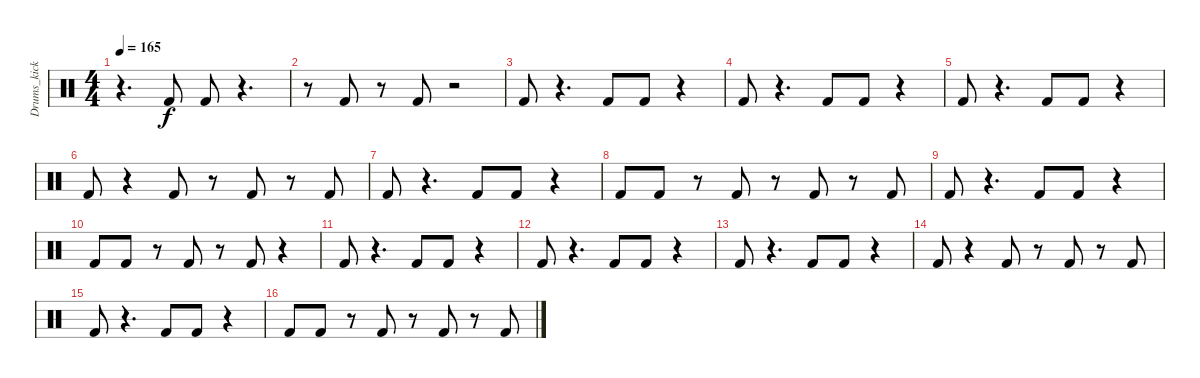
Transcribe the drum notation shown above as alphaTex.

\track ("Drums_kick" "Drums_kick") {instrument percussion}
\staff {score}
\articulation defaults
\ts (4 4)
\tempo 165
\clef neutral
\ks c
r.4{d dy f} "Kick (hit) 2".8 "Kick (hit) 2".8 r.4{d} |
r.8 "Kick (hit) 2".8 r.8 "Kick (hit) 2".8 r.2 |
"Kick (hit) 2".8 r.4{d} "Kick (hit) 2".8 "Kick (hit) 2".8 r.4 |
"Kick (hit) 2".8 r.4{d} "Kick (hit) 2".8 "Kick (hit) 2".8 r.4 |
"Kick (hit) 2".8 r.4{d} "Kick (hit) 2".8 "Kick (hit) 2".8 r.4 |
"Kick (hit) 2".8 r.4 "Kick (hit) 2".8 r.8 "Kick (hit) 2".8 r.8 "Kick (hit) 2".8 |
"Kick (hit) 2".8 r.4{d} "Kick (hit) 2".8 "Kick (hit) 2".8 r.4 |
"Kick (hit) 2".8 "Kick (hit) 2".8 r.8 "Kick (hit) 2".8 r.8 "Kick (hit) 2".8 r.8 "Kick (hit) 2".8 |
"Kick (hit) 2".8 r.4{d} "Kick (hit) 2".8 "Kick (hit) 2".8 r.4 |
"Kick (hit) 2".8 "Kick (hit) 2".8 r.8 "Kick (hit) 2".8 r.8 "Kick (hit) 2".8 r.4 |
"Kick (hit) 2".8 r.4{d} "Kick (hit) 2".8 "Kick (hit) 2".8 r.4 |
"Kick (hit) 2".8 r.4{d} "Kick (hit) 2".8 "Kick (hit) 2".8 r.4 |
"Kick (hit) 2".8 r.4{d} "Kick (hit) 2".8 "Kick (hit) 2".8 r.4 |
"Kick (hit) 2".8 r.4 "Kick (hit) 2".8 r.8 "Kick (hit) 2".8 r.8 "Kick (hit) 2".8 |
"Kick (hit) 2".8 r.4{d} "Kick (hit) 2".8 "Kick (hit) 2".8 r.4 |
"Kick (hit) 2".8 "Kick (hit) 2".8 r.8 "Kick (hit) 2".8 r.8 "Kick (hit) 2".8 r.8 "Kick (hit) 2".8
